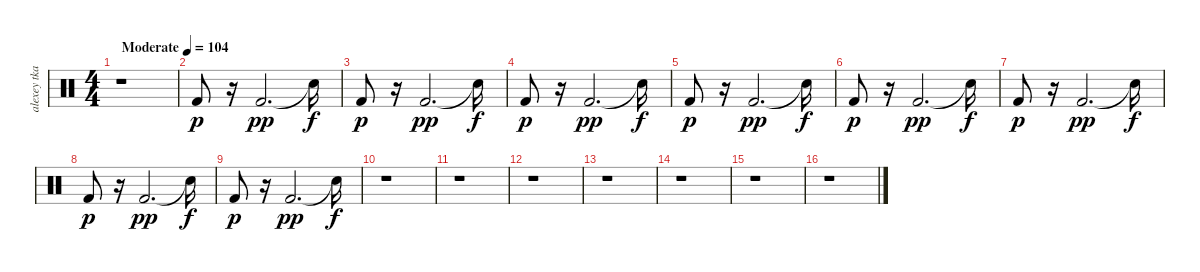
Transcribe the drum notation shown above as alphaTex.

\track ("alexey tkachevsky" "alexey tka") {instrument percussion}
\staff {score}
\articulation defaults
\ts (4 4)
\tempo (104 "Moderate")
\clef neutral
\ks c
r.1{dy p} |
"Kick (hit) 2".8 r.16 "Kick (hit) 2".2{d dy pp} "Snare (hit)"{t}.16{dy f} |
"Kick (hit) 2".8{dy p} r.16 "Kick (hit) 2".2{d dy pp} "Snare (hit)"{t}.16{dy f} |
"Kick (hit) 2".8{dy p} r.16 "Kick (hit) 2".2{d dy pp} "Snare (hit)"{t}.16{dy f} |
"Kick (hit) 2".8{dy p} r.16 "Kick (hit) 2".2{d dy pp} "Snare (hit)"{t}.16{dy f} |
"Kick (hit) 2".8{dy p} r.16 "Kick (hit) 2".2{d dy pp} "Snare (hit)"{t}.16{dy f} |
"Kick (hit) 2".8{dy p} r.16 "Kick (hit) 2".2{d dy pp} "Snare (hit)"{t}.16{dy f} |
"Kick (hit) 2".8{dy p} r.16 "Kick (hit) 2".2{d dy pp} "Snare (hit)"{t}.16{dy f} |
"Kick (hit) 2".8{dy p} r.16 "Kick (hit) 2".2{d dy pp} "Snare (hit)"{t}.16{dy f} |
r.1 |
r.1 |
r.1 |
r.1 |
r.1 |
r.1 |
r.1
